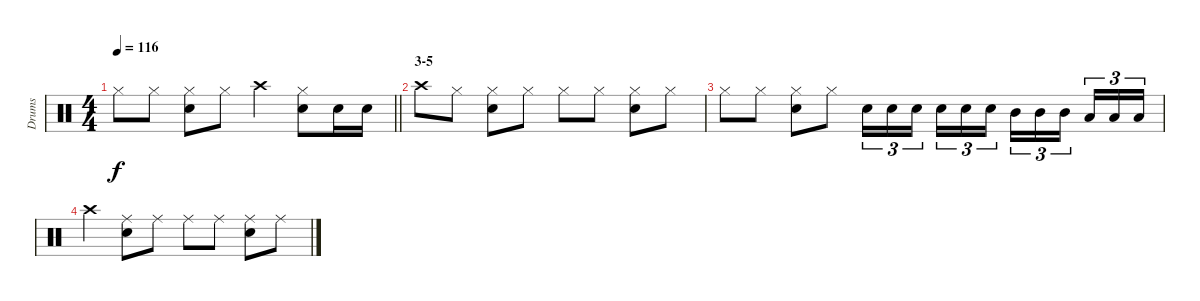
\track ("Drums" "Drums") {instrument percussion}
\staff {score}
\articulation defaults
\ts (4 4)
\tempo 116
\clef neutral
\barLineRight lightlight
\ks c "Hi-Hat (closed)".8{dy f} "Hi-Hat (closed)".8
("Hi-Hat (closed)" "Snare (hit) 2").8 "Hi-Hat (closed)".8 "Crash high (hit)".4 ("Hi-Hat (closed)" "Snare (hit) 2").8 "Snare (hit) 2".16 "Snare (hit) 2".16 |
\section ("" "3-5")
"Crash high (hit)".8 "Hi-Hat (closed)".8 ("Hi-Hat (closed)" "Snare (hit) 2").8 "Hi-Hat (closed)".8 "Hi-Hat (closed)".8 "Hi-Hat (closed)".8 ("Hi-Hat (closed)" "Snare (hit) 2").8 "Hi-Hat (closed)".8 |
"Hi-Hat (closed)".8 "Hi-Hat (closed)".8 ("Hi-Hat (closed)" "Snare (hit) 2").8 "Hi-Hat (closed)".8 "Snare (hit) 2".16{tu (3 2)} "Snare (hit) 2".16{tu (3 2)} "Snare (hit) 2".16{tu (3 2) beam splitsecondary} "Snare (hit) 2".16{tu (3 2)} "Snare (hit) 2".16{tu (3 2)} "Snare (hit) 2".16{tu (3 2)} "Mid Tom (hit)".16{tu (3 2)} "Mid Tom (hit)".16{tu (3 2)} "Mid Tom (hit)".16{tu (3 2) beam splitsecondary} "Low Tom (hit)".16{tu (3 2)} "Low Tom (hit)".16{tu (3 2)} "Low Tom (hit)".16{tu (3 2)} |
"Crash high (hit)".4 ("Ride (middle)" "Snare (hit) 2").8 "Ride (middle)".8 "Ride (middle)".8 "Ride (middle)".8 ("Ride (middle)" "Snare (hit) 2").8 "Ride (middle)".8
